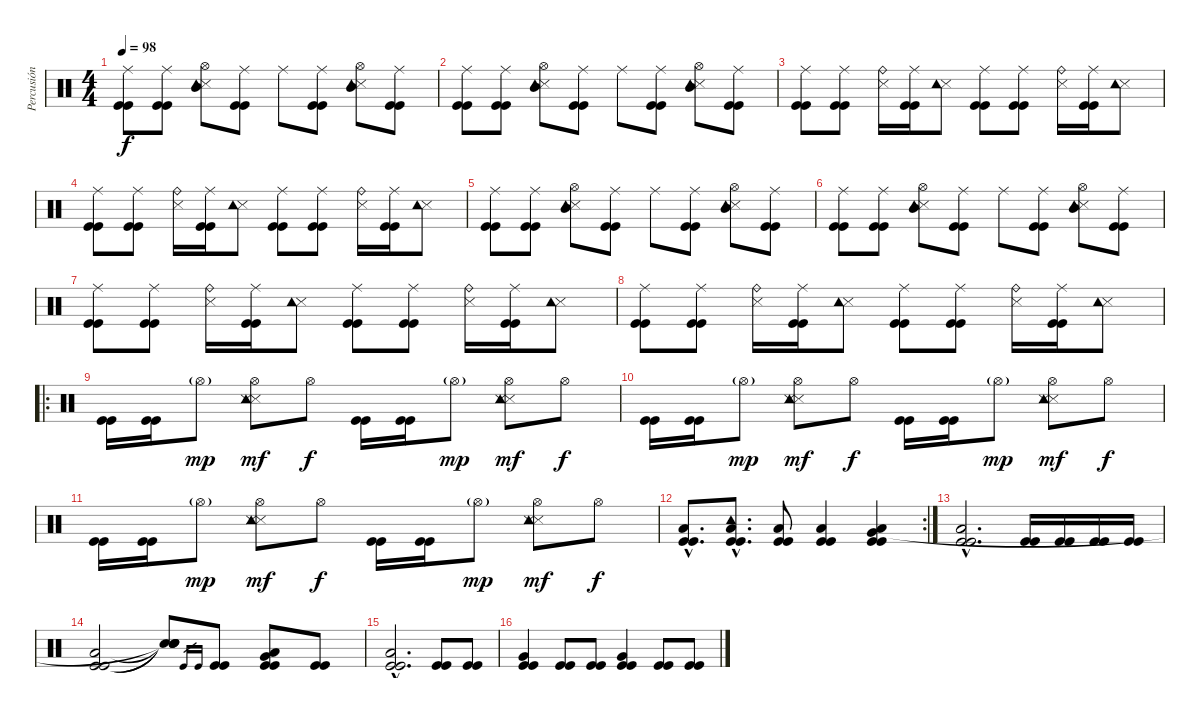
\track ("Percusión" "Percusión") {instrument percussion}
\staff {score}
\articulation defaults
\ts (4 4)
\tempo 98
\clef neutral
\ks c
("Kick (hit)" "Kick (hit)" "Ride (middle)").8{dy f} ("Kick (hit)" "Kick (hit)" "Ride (middle)").8 ("Snare (side stick) 3" "Mid Tom (hit)" "Hi-Hat (open)" "Tambourine (hit)").8 ("Kick (hit)" "Kick (hit)" "Ride (middle)").8 "Ride (middle)".8 ("Kick (hit)" "Kick (hit)" "Ride (middle)").8 ("Snare (side stick) 3" "Mid Tom (hit)" "Hi-Hat (open)" "Tambourine (hit)").8 ("Kick (hit)" "Kick (hit)" "Ride (middle)").8 |
("Kick (hit)" "Kick (hit)" "Ride (middle)").8 ("Kick (hit)" "Kick (hit)" "Ride (middle)").8 ("Snare (side stick) 3" "Mid Tom (hit)" "Hi-Hat (open)" "Tambourine (hit)").8 ("Kick (hit)" "Kick (hit)" "Ride (middle)").8 "Ride (middle)".8 ("Kick (hit)" "Kick (hit)" "Ride (middle)").8 ("Snare (side stick) 3" "Mid Tom (hit)" "Hi-Hat (open)" "Tambourine (hit)").8 ("Kick (hit)" "Kick (hit)" "Ride (middle)").8 |
("Kick (hit)" "Kick (hit)" "Ride (middle)").8 ("Kick (hit)" "Kick (hit)" "Ride (middle)").8 ("Snare (side stick) 3" "Ride (bell)").16 ("Kick (hit)" "Kick (hit)" "Ride (middle)").16 ("Snare (side stick) 3" "Tambourine (hit)").8 ("Kick (hit)" "Kick (hit)" "Ride (middle)").8 ("Kick (hit)" "Kick (hit)" "Ride (middle)").8 ("Snare (side stick) 3" "Ride (bell)").16 ("Kick (hit)" "Kick (hit)" "Ride (middle)").16 ("Snare (side stick) 3" "Tambourine (hit)").8 |
("Kick (hit)" "Kick (hit)" "Ride (middle)").8 ("Kick (hit)" "Kick (hit)" "Ride (middle)").8 ("Snare (side stick) 3" "Ride (bell)").16 ("Kick (hit)" "Kick (hit)" "Ride (middle)").16 ("Snare (side stick) 3" "Tambourine (hit)").8 ("Kick (hit)" "Kick (hit)" "Ride (middle)").8 ("Kick (hit)" "Kick (hit)" "Ride (middle)").8 ("Snare (side stick) 3" "Ride (bell)").16 ("Kick (hit)" "Kick (hit)" "Ride (middle)").16 ("Snare (side stick) 3" "Tambourine (hit)").8 |
("Kick (hit)" "Kick (hit)" "Ride (middle)").8 ("Kick (hit)" "Kick (hit)" "Ride (middle)").8 ("Snare (side stick) 3" "Mid Tom (hit)" "Hi-Hat (open)" "Tambourine (hit)").8 ("Kick (hit)" "Kick (hit)" "Ride (middle)").8 "Ride (middle)".8 ("Kick (hit)" "Kick (hit)" "Ride (middle)").8 ("Snare (side stick) 3" "Mid Tom (hit)" "Hi-Hat (open)" "Tambourine (hit)").8 ("Kick (hit)" "Kick (hit)" "Ride (middle)").8 |
("Kick (hit)" "Kick (hit)" "Ride (middle)").8 ("Kick (hit)" "Kick (hit)" "Ride (middle)").8 ("Snare (side stick) 3" "Mid Tom (hit)" "Hi-Hat (open)" "Tambourine (hit)").8 ("Kick (hit)" "Kick (hit)" "Ride (middle)").8 "Ride (middle)".8 ("Kick (hit)" "Kick (hit)" "Ride (middle)").8 ("Snare (side stick) 3" "Mid Tom (hit)" "Hi-Hat (open)" "Tambourine (hit)").8 ("Kick (hit)" "Kick (hit)" "Ride (middle)").8 |
("Kick (hit)" "Kick (hit)" "Ride (middle)").8 ("Kick (hit)" "Kick (hit)" "Ride (middle)").8 ("Snare (side stick) 3" "Ride (bell)").16 ("Kick (hit)" "Kick (hit)" "Ride (middle)").16 ("Snare (side stick) 3" "Tambourine (hit)").8 ("Kick (hit)" "Kick (hit)" "Ride (middle)").8 ("Kick (hit)" "Kick (hit)" "Ride (middle)").8 ("Snare (side stick) 3" "Ride (bell)").16 ("Kick (hit)" "Kick (hit)" "Ride (middle)").16 ("Snare (side stick) 3" "Tambourine (hit)").8 |
("Kick (hit)" "Kick (hit)" "Ride (middle)").8 ("Kick (hit)" "Kick (hit)" "Ride (middle)").8 ("Snare (side stick) 3" "Ride (bell)").16 ("Kick (hit)" "Kick (hit)" "Ride (middle)").16 ("Snare (side stick) 3" "Tambourine (hit)").8 ("Kick (hit)" "Kick (hit)" "Ride (middle)").8 ("Kick (hit)" "Kick (hit)" "Ride (middle)").8 ("Snare (side stick) 3" "Ride (bell)").16 ("Kick (hit)" "Kick (hit)" "Ride (middle)").16 ("Snare (side stick) 3" "Tambourine (hit)").8 |
\ro
("Kick (hit)" "Kick (hit)").16 ("Kick (hit)" "Kick (hit)").16 "Hi-Hat (open)"{g}.8{dy mp} ("Snare (side stick) 3" "Snare (side stick) 3" "Tambourine (hit)" "Hi-Hat (open)").8{dy mf} "Hi-Hat (open)".8{dy f} ("Kick (hit)" "Kick (hit)").16 ("Kick (hit)" "Kick (hit)").16 "Hi-Hat (open)"{g}.8{dy mp} ("Snare (side stick) 3" "Snare (side stick) 3" "Tambourine (hit)" "Hi-Hat (open)").8{dy mf} "Hi-Hat (open)".8{dy f} |
("Kick (hit)" "Kick (hit)").16 ("Kick (hit)" "Kick (hit)").16 "Hi-Hat (open)"{g}.8{dy mp} ("Snare (side stick) 3" "Snare (side stick) 3" "Tambourine (hit)" "Hi-Hat (open)").8{dy mf} "Hi-Hat (open)".8{dy f} ("Kick (hit)" "Kick (hit)").16 ("Kick (hit)" "Kick (hit)").16 "Hi-Hat (open)"{g}.8{dy mp} ("Snare (side stick) 3" "Snare (side stick) 3" "Tambourine (hit)" "Hi-Hat (open)").8{dy mf} "Hi-Hat (open)".8{dy f} |
("Kick (hit)" "Kick (hit)").16 ("Kick (hit)" "Kick (hit)").16 "Hi-Hat (open)"{g}.8{dy mp} ("Snare (side stick) 3" "Snare (side stick) 3" "Tambourine (hit)" "Hi-Hat (open)").8{dy mf} "Hi-Hat (open)".8{dy f} ("Kick (hit)" "Kick (hit)").16 ("Kick (hit)" "Kick (hit)").16 "Hi-Hat (open)"{g}.8{dy mp} ("Snare (side stick) 3" "Snare (side stick) 3" "Tambourine (hit)" "Hi-Hat (open)").8{dy mf} "Hi-Hat (open)".8{dy f} |
\rc 2
("Kick (hit)"{hac} "Kick (hit)"{hac} "Low Floor Tom (hit)"{hac}).8{d} ("Kick (hit)"{hac} "Kick (hit)"{hac} "Low Floor Tom (hit)"{hac} "Tambourine (hit)"{hac}).8{d} ("Kick (hit)" "Kick (hit)" "Low Floor Tom (hit)").8 ("Kick (hit)" "Kick (hit)" "Low Floor Tom (hit)").4 ("Kick (hit)" "Kick (hit)" "Low Floor Tom (hit)" "Very Low Tom (hit)").4 |
("Kick (hit)"{hac} "Kick (hit)"{hac} "Low Floor Tom (hit)"{hac}).2{d} ("Kick (hit)" "Kick (hit)").16 ("Kick (hit)" "Kick (hit)").16 ("Kick (hit)" "Kick (hit)").16 ("Kick (hit)" "Kick (hit)").16 |
("Kick (hit)" "Kick (hit)" "Low Floor Tom (hit)").2 ("Snare (hit)"{t} "Snare (hit)"{t} "Snare (hit)"{t} "Snare (hit)"{t}).8 "Kick (hit)".16{gr} "Kick (hit)".16{gr} ("Kick (hit)" "Kick (hit)").8 ("Kick (hit)" "Kick (hit)" "Low Floor Tom (hit)" "Very Low Tom (hit)").8 ("Kick (hit)" "Kick (hit)").8 |
("Kick (hit)"{hac} "Kick (hit)"{hac} "Low Floor Tom (hit)"{hac}).2{d} ("Kick (hit)" "Kick (hit)").8 ("Kick (hit)" "Kick (hit)").8 |
("Kick (hit)" "Kick (hit)" "Very Low Tom (hit)").4 ("Kick (hit)" "Kick (hit)").8 ("Kick (hit)" "Kick (hit)").8 ("Kick (hit)" "Kick (hit)" "Very Low Tom (hit)").4 ("Kick (hit)" "Kick (hit)").8 ("Kick (hit)" "Kick (hit)").8
